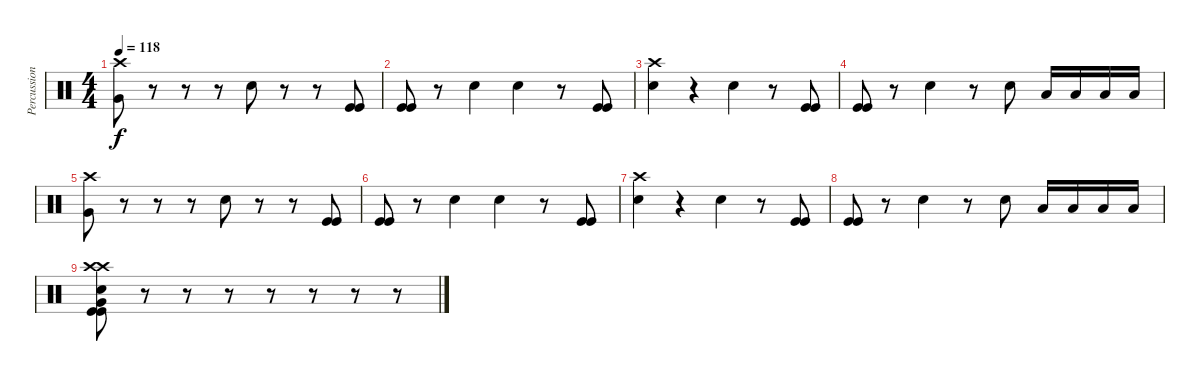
\track ("Percussion" "Percussion") {instrument percussion}
\staff {score}
\articulation defaults
\ts (4 4)
\tempo 118
\clef neutral
\ks c
("Crash high (hit)" "Very Low Tom (hit)").8{dy f} r.8 r.8 r.8 "Electric Snare (hit)".8 r.8 r.8 ("Kick (hit)" "Kick (hit)").8 |
("Kick (hit)" "Kick (hit)").8 r.8 "Electric Snare (hit)".4 "Electric Snare (hit)".4 r.8 ("Kick (hit)" "Kick (hit)").8 |
("Crash high (hit)" "Electric Snare (hit)").4 r.4 "Electric Snare (hit)".4 r.8 ("Kick (hit)" "Kick (hit)").8 |
("Kick (hit)" "Kick (hit)").8 r.8 "Electric Snare (hit)".4 r.8 "Electric Snare (hit)".8 "Low Tom (hit)".16 "Low Floor Tom (hit)".16 "Low Tom (hit)".16 "Low Floor Tom (hit)".16 |
("Crash high (hit)" "Very Low Tom (hit)").8 r.8 r.8 r.8 "Electric Snare (hit)".8 r.8 r.8 ("Kick (hit)" "Kick (hit)").8 |
("Kick (hit)" "Kick (hit)").8 r.8 "Electric Snare (hit)".4 "Electric Snare (hit)".4 r.8 ("Kick (hit)" "Kick (hit)").8 |
("Crash high (hit)" "Electric Snare (hit)").4 r.4 "Electric Snare (hit)".4 r.8 ("Kick (hit)" "Kick (hit)").8 |
("Kick (hit)" "Kick (hit)").8 r.8 "Electric Snare (hit)".4 r.8 "Electric Snare (hit)".8 "Low Tom (hit)".16 "Low Floor Tom (hit)".16 "Low Tom (hit)".16 "Low Floor Tom (hit)".16 |
("Crash high (hit)" "Crash high (hit)" "Electric Snare (hit)" "Very Low Tom (hit)" "Kick (hit)" "Kick (hit)").8 r.8 r.8 r.8 r.8 r.8 r.8 r.8
